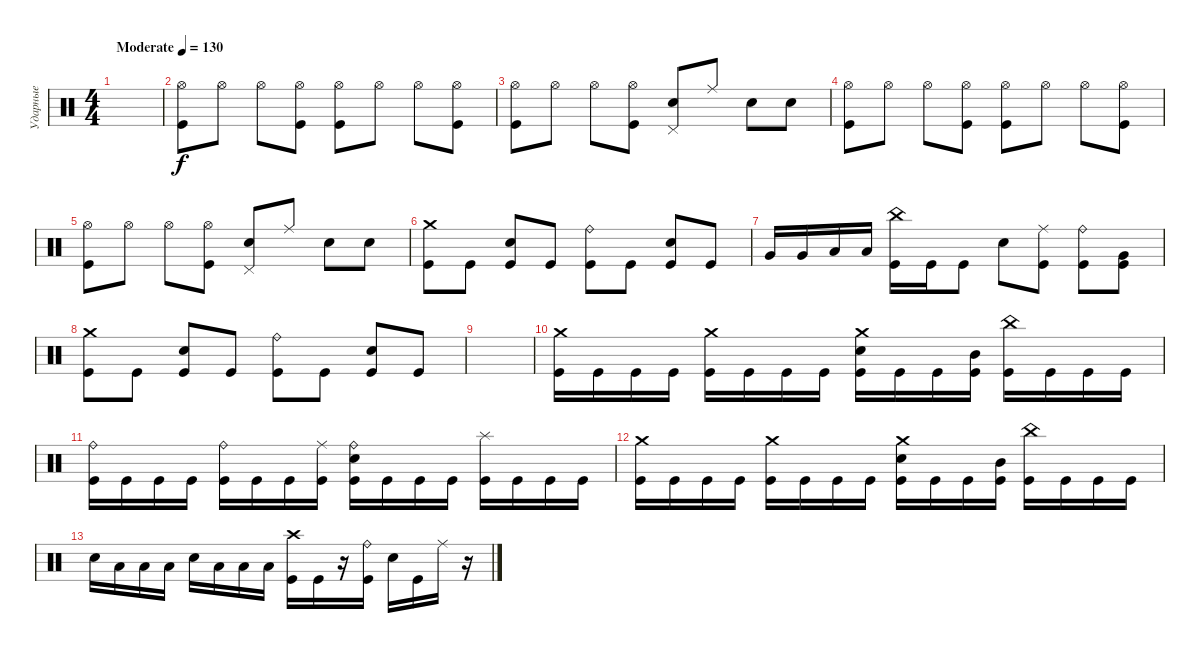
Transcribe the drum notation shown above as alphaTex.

\track ("Ударные" "Ударные") {instrument percussion}
\staff {score}
\articulation defaults
\ts (4 4)
\tempo (130 "Moderate")
\clef neutral
\ks c
|
("Hi-Hat (open)" "Kick (hit)").8 "Hi-Hat (open)".8 "Hi-Hat (open)".8 ("Hi-Hat (open)" "Kick (hit)").8 ("Hi-Hat (open)" "Kick (hit)").8 "Hi-Hat (open)".8 "Hi-Hat (open)".8 ("Hi-Hat (open)" "Kick (hit)").8 |
("Hi-Hat (open)" "Kick (hit)").8 "Hi-Hat (open)".8 "Hi-Hat (open)".8 ("Hi-Hat (open)" "Kick (hit)").8 ("Pedal Hi-Hat (hit)" "Electric Snare (hit)").8 "Ride (middle)".8 "Electric Snare (hit)".8 "Electric Snare (hit)".8 |
("Hi-Hat (open)" "Kick (hit)").8 "Hi-Hat (open)".8 "Hi-Hat (open)".8 ("Hi-Hat (open)" "Kick (hit)").8 ("Hi-Hat (open)" "Kick (hit)").8 "Hi-Hat (open)".8 "Hi-Hat (open)".8 ("Hi-Hat (open)" "Kick (hit)").8 |
("Hi-Hat (open)" "Kick (hit)").8 "Hi-Hat (open)".8 "Hi-Hat (open)".8 ("Hi-Hat (open)" "Kick (hit)").8 ("Pedal Hi-Hat (hit)" "Electric Snare (hit)").8 "Ride (middle)".8 "Electric Snare (hit)".8 "Electric Snare (hit)".8 |
("Crash medium (hit)" "Kick (hit)").8 "Kick (hit)".8 ("Electric Snare (hit)" "Kick (hit)").8 "Kick (hit)".8 ("Ride (bell)" "Kick (hit)").8 "Kick (hit)".8 ("Electric Snare (hit)" "Kick (hit)").8 "Kick (hit)".8 |
"Very Low Tom (hit)".16 "Very Low Tom (hit)".16 "Low Floor Tom (hit)".16 "Low Floor Tom (hit)".16 ("China (hit)" "Kick (hit)").16 "Kick (hit)".16 "Kick (hit)".8 "Electric Snare (hit)".8 ("Ride (middle)" "Kick (hit)").8 ("Ride (bell)" "Kick (hit)").8 ("Very Low Tom (hit)" "Kick (hit)").8 |
("Crash medium (hit)" "Kick (hit)").8 "Kick (hit)".8 ("Electric Snare (hit)" "Kick (hit)").8 "Kick (hit)".8 ("Ride (bell)" "Kick (hit)").8 "Kick (hit)".8 ("Electric Snare (hit)" "Kick (hit)").8 "Kick (hit)".8 |
|
("Crash medium (hit)" "Kick (hit)").16 "Kick (hit)".16 "Kick (hit)".16 "Kick (hit)".16 ("Crash medium (hit)" "Kick (hit)").16 "Kick (hit)".16 "Kick (hit)".16 "Kick (hit)".16 ("Crash medium (hit)" "Electric Snare (hit)" "Kick (hit)").16 "Kick (hit)".16 "Kick (hit)".16 ("Mid Tom (hit)" "Kick (hit)").16 ("China (hit)" "Kick (hit)").16 "Kick (hit)".16 "Kick (hit)".16 "Kick (hit)".16 |
("Ride (bell)" "Kick (hit)").16 "Kick (hit)".16 "Kick (hit)".16 "Kick (hit)".16 ("Ride (bell)" "Kick (hit)").16 "Kick (hit)".16 "Kick (hit)".16 ("Ride (middle)" "Kick (hit)").16 ("Ride (bell)" "Electric Snare (hit)" "Kick (hit)").16 "Kick (hit)".16 "Kick (hit)".16 "Kick (hit)".16 ("Splash (hit)" "Kick (hit)").16 "Kick (hit)".16 "Kick (hit)".16 "Kick (hit)".16 |
("Crash medium (hit)" "Kick (hit)").16 "Kick (hit)".16 "Kick (hit)".16 "Kick (hit)".16 ("Crash medium (hit)" "Kick (hit)").16 "Kick (hit)".16 "Kick (hit)".16 "Kick (hit)".16 ("Crash medium (hit)" "Electric Snare (hit)" "Kick (hit)").16 "Kick (hit)".16 "Kick (hit)".16 ("Mid Tom (hit)" "Kick (hit)").16 ("China (hit)" "Kick (hit)").16 "Kick (hit)".16 "Kick (hit)".16 "Kick (hit)".16 |
"Electric Snare (hit)".16 "Low Tom (hit)".16 "Low Tom (hit)".16 "Low Tom (hit)".16 "Electric Snare (hit)".16 "Low Floor Tom (hit)".16 "Low Floor Tom (hit)".16 "Low Floor Tom (hit)".16 ("Crash high (hit)" "Kick (hit)").16 "Kick (hit)".16 r.16 ("Ride (bell)" "Kick (hit)").16 "Electric Snare (hit)".16 "Kick (hit)".16 "Ride (middle)".16 r.16
